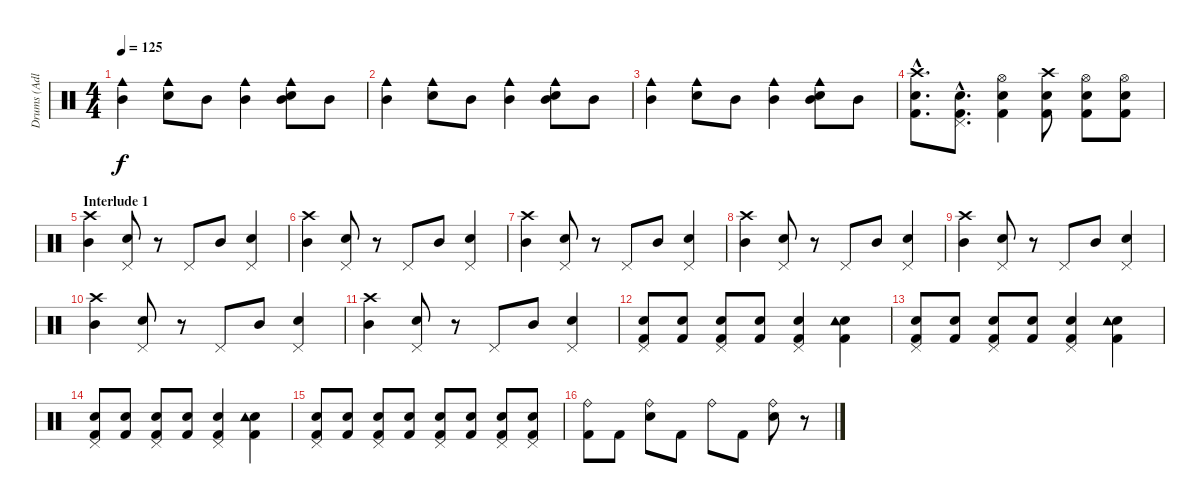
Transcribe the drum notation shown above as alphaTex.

\track ("Drums (Adler)" "Drums (Adl") {instrument percussion}
\staff {score}
\articulation defaults
\ts (4 4)
\tempo 125
\clef neutral
\ks c
("Mid Tom (hit)" "Cowbell medium (hit)").4{dy f} ("Electric Snare (hit)" "Cowbell medium (hit)").8 "Mid Tom (hit)".8 ("Mid Tom (hit)" "Cowbell medium (hit)").4 ("Electric Snare (hit)" "Mid Tom (hit)" "Cowbell medium (hit)").8 "Mid Tom (hit)".8 |
("Mid Tom (hit)" "Cowbell medium (hit)").4 ("Electric Snare (hit)" "Cowbell medium (hit)").8 "Mid Tom (hit)".8 ("Mid Tom (hit)" "Cowbell medium (hit)").4 ("Electric Snare (hit)" "Mid Tom (hit)" "Cowbell medium (hit)").8 "Mid Tom (hit)".8 |
("Mid Tom (hit)" "Cowbell medium (hit)").4 ("Electric Snare (hit)" "Cowbell medium (hit)").8 "Mid Tom (hit)".8 ("Mid Tom (hit)" "Cowbell medium (hit)").4 ("Electric Snare (hit)" "Mid Tom (hit)" "Cowbell medium (hit)").8 "Mid Tom (hit)".8 |
("Kick (hit) 2"{hac} "Snare (hit) 2"{hac} "Crash high (hit)"{hac}).8{d} ("Kick (hit) 2"{hac} "Snare (hit) 2"{hac} "Pedal Hi-Hat (hit)"{hac}).8{d} ("Kick (hit) 2" "Snare (hit) 2" "Hi-Hat (open)").4 ("Kick (hit) 2" "Snare (hit) 2" "Crash high (hit)").8 ("Kick (hit) 2" "Snare (hit) 2" "Hi-Hat (open)").8 ("Kick (hit) 2" "Snare (hit) 2" "Hi-Hat (open)").8 |
\section ("" "Interlude 1")
("Crash high (hit)" "Mid Tom (hit)").4 ("Pedal Hi-Hat (hit)" "Electric Snare (hit)").8 r.8 "Pedal Hi-Hat (hit)".8 "Mid Tom (hit)".8 ("Pedal Hi-Hat (hit)" "Electric Snare (hit)").4 |
("Crash high (hit)" "Mid Tom (hit)").4 ("Pedal Hi-Hat (hit)" "Electric Snare (hit)").8 r.8 "Pedal Hi-Hat (hit)".8 "Mid Tom (hit)".8 ("Pedal Hi-Hat (hit)" "Electric Snare (hit)").4 |
("Crash high (hit)" "Mid Tom (hit)").4 ("Pedal Hi-Hat (hit)" "Electric Snare (hit)").8 r.8 "Pedal Hi-Hat (hit)".8 "Mid Tom (hit)".8 ("Pedal Hi-Hat (hit)" "Electric Snare (hit)").4 |
("Crash high (hit)" "Mid Tom (hit)").4 ("Pedal Hi-Hat (hit)" "Electric Snare (hit)").8 r.8 "Pedal Hi-Hat (hit)".8 "Mid Tom (hit)".8 ("Pedal Hi-Hat (hit)" "Electric Snare (hit)").4 |
("Crash high (hit)" "Mid Tom (hit)").4 ("Pedal Hi-Hat (hit)" "Electric Snare (hit)").8 r.8 "Pedal Hi-Hat (hit)".8 "Mid Tom (hit)".8 ("Pedal Hi-Hat (hit)" "Electric Snare (hit)").4 |
("Crash high (hit)" "Mid Tom (hit)").4 ("Pedal Hi-Hat (hit)" "Electric Snare (hit)").8 r.8 "Pedal Hi-Hat (hit)".8 "Mid Tom (hit)".8 ("Pedal Hi-Hat (hit)" "Electric Snare (hit)").4 |
("Crash high (hit)" "Mid Tom (hit)").4 ("Pedal Hi-Hat (hit)" "Electric Snare (hit)").8 r.8 "Pedal Hi-Hat (hit)".8 "Mid Tom (hit)".8 ("Pedal Hi-Hat (hit)" "Electric Snare (hit)").4 |
("Kick (hit) 2" "Electric Snare (hit)" "Pedal Hi-Hat (hit)").8 ("Kick (hit) 2" "Electric Snare (hit)").8 ("Kick (hit) 2" "Electric Snare (hit)" "Pedal Hi-Hat (hit)").8 ("Kick (hit) 2" "Electric Snare (hit)").8 ("Kick (hit) 2" "Electric Snare (hit)" "Pedal Hi-Hat (hit)").4 ("Kick (hit) 2" "Electric Snare (hit)" "Tambourine (hit)").4 |
("Kick (hit) 2" "Electric Snare (hit)" "Pedal Hi-Hat (hit)").8 ("Kick (hit) 2" "Electric Snare (hit)").8 ("Kick (hit) 2" "Electric Snare (hit)" "Pedal Hi-Hat (hit)").8 ("Kick (hit) 2" "Electric Snare (hit)").8 ("Kick (hit) 2" "Electric Snare (hit)" "Pedal Hi-Hat (hit)").4 ("Kick (hit) 2" "Electric Snare (hit)" "Tambourine (hit)").4 |
("Kick (hit) 2" "Electric Snare (hit)" "Pedal Hi-Hat (hit)").8 ("Kick (hit) 2" "Electric Snare (hit)").8 ("Kick (hit) 2" "Electric Snare (hit)" "Pedal Hi-Hat (hit)").8 ("Kick (hit) 2" "Electric Snare (hit)").8 ("Kick (hit) 2" "Electric Snare (hit)" "Pedal Hi-Hat (hit)").4 ("Kick (hit) 2" "Electric Snare (hit)" "Tambourine (hit)").4 |
("Kick (hit) 2" "Electric Snare (hit)" "Pedal Hi-Hat (hit)").8 ("Kick (hit) 2" "Electric Snare (hit)").8 ("Kick (hit) 2" "Electric Snare (hit)" "Pedal Hi-Hat (hit)").8 ("Kick (hit) 2" "Electric Snare (hit)").8 ("Kick (hit) 2" "Electric Snare (hit)" "Pedal Hi-Hat (hit)").8 ("Kick (hit) 2" "Electric Snare (hit)").8 ("Kick (hit) 2" "Electric Snare (hit)" "Pedal Hi-Hat (hit)").8 ("Kick (hit) 2" "Electric Snare (hit)" "Pedal Hi-Hat (hit)").8 |
("Kick (hit) 2" "Ride (bell)").8 "Kick (hit) 2".8 ("Electric Snare (hit)" "Ride (bell)").8 "Kick (hit) 2".8 "Ride (bell)".8 "Kick (hit) 2".8 ("Electric Snare (hit)" "Ride (bell)").8 r.8
